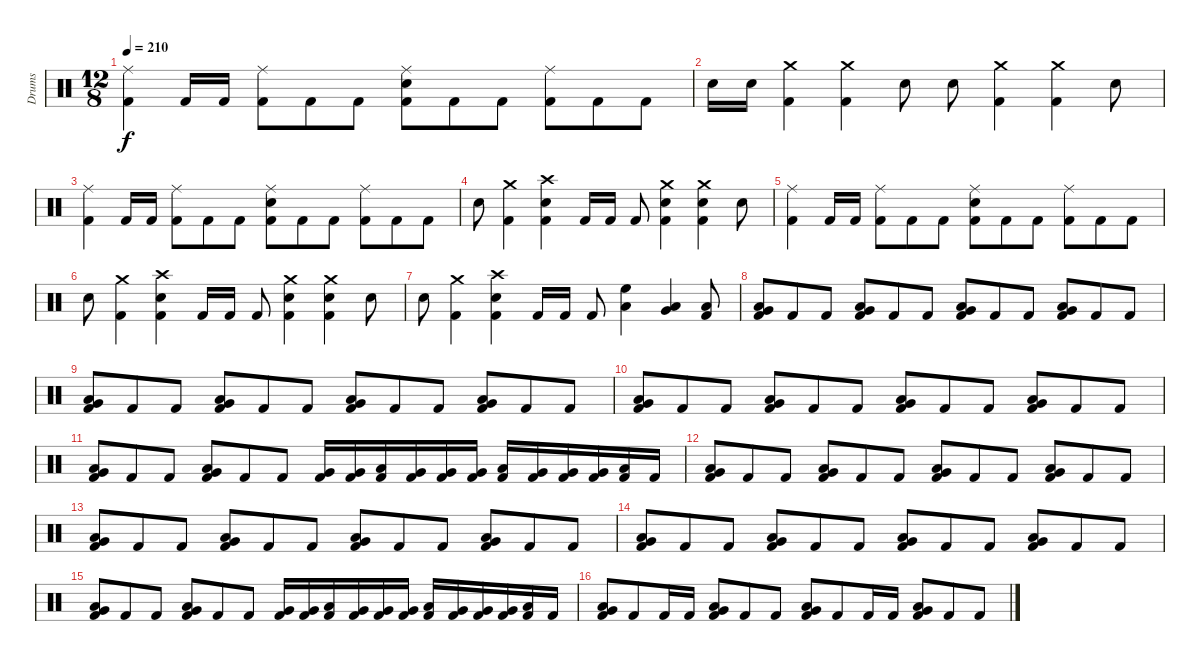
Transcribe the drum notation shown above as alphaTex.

\track ("Drums" "Drums") {instrument percussion}
\staff {score}
\articulation defaults
\ts (12 8)
\tempo 210
\clef neutral
\ks c
("Ride (middle)" "Kick (hit) 2").4{dy f} "Kick (hit) 2".16 "Kick (hit) 2".16 ("Ride (middle)" "Kick (hit) 2").8 "Kick (hit) 2".8 "Kick (hit) 2".8 ("Ride (middle)" "Snare (hit) 2" "Kick (hit) 2").8 "Kick (hit) 2".8 "Kick (hit) 2".8 ("Ride (middle)" "Kick (hit) 2").8 "Kick (hit) 2".8 "Kick (hit) 2".8 |
"Snare (hit) 2".16 "Snare (hit) 2".16 ("Crash medium (hit)" "Kick (hit) 2").4 ("Crash medium (hit)" "Kick (hit) 2").4 "Snare (hit) 2".8 "Snare (hit) 2".8 ("Crash medium (hit)" "Kick (hit) 2").4 ("Crash medium (hit)" "Kick (hit) 2").4 "Snare (hit) 2".8 |
("Ride (middle)" "Kick (hit) 2").4 "Kick (hit) 2".16 "Kick (hit) 2".16 ("Ride (middle)" "Kick (hit) 2").8 "Kick (hit) 2".8 "Kick (hit) 2".8 ("Ride (middle)" "Snare (hit) 2" "Kick (hit) 2").8 "Kick (hit) 2".8 "Kick (hit) 2".8 ("Ride (middle)" "Kick (hit) 2").8 "Kick (hit) 2".8 "Kick (hit) 2".8 |
"Snare (hit) 2".8 ("Crash medium (hit)" "Kick (hit) 2").4 ("Crash high (hit)" "Snare (hit) 2" "Kick (hit) 2").4 "Kick (hit) 2".16 "Kick (hit) 2".16 "Kick (hit) 2".8 ("Crash medium (hit)" "Snare (hit) 2" "Kick (hit) 2").4 ("Crash medium (hit)" "Snare (hit) 2" "Kick (hit) 2").4 "Snare (hit) 2".8 |
("Ride (middle)" "Kick (hit) 2").4 "Kick (hit) 2".16 "Kick (hit) 2".16 ("Ride (middle)" "Kick (hit) 2").8 "Kick (hit) 2".8 "Kick (hit) 2".8 ("Ride (middle)" "Snare (hit) 2" "Kick (hit) 2").8 "Kick (hit) 2".8 "Kick (hit) 2".8 ("Ride (middle)" "Kick (hit) 2").8 "Kick (hit) 2".8 "Kick (hit) 2".8 |
"Snare (hit) 2".8 ("Crash medium (hit)" "Kick (hit) 2").4 ("Crash high (hit)" "Snare (hit) 2" "Kick (hit) 2").4 "Kick (hit) 2".16 "Kick (hit) 2".16 "Kick (hit) 2".8 ("Crash medium (hit)" "Snare (hit) 2" "Kick (hit) 2").4 ("Crash medium (hit)" "Snare (hit) 2" "Kick (hit) 2").4 "Snare (hit) 2".8 |
"Snare (hit) 2".8 ("Crash medium (hit)" "Kick (hit) 2").4 ("Crash high (hit)" "Snare (hit) 2" "Kick (hit) 2").4 "Kick (hit) 2".16 "Kick (hit) 2".16 "Kick (hit) 2".8 ("Low Tom (hit)" "High Floor Tom (hit)").4 ("Very Low Tom (hit)" "Low Tom (hit)").4 ("Low Tom (hit)" "Kick (hit) 2").8 |
("Very Low Tom (hit)" "Low Tom (hit)" "Kick (hit) 2").8 "Kick (hit) 2".8 "Kick (hit) 2".8 ("Very Low Tom (hit)" "Low Tom (hit)" "Kick (hit) 2").8 "Kick (hit) 2".8 "Kick (hit) 2".8 ("Very Low Tom (hit)" "Low Tom (hit)" "Kick (hit) 2").8 "Kick (hit) 2".8 "Kick (hit) 2".8 ("Very Low Tom (hit)" "Low Tom (hit)" "Kick (hit) 2").8 "Kick (hit) 2".8 "Kick (hit) 2".8 |
("Very Low Tom (hit)" "Low Tom (hit)" "Kick (hit) 2").8 "Kick (hit) 2".8 "Kick (hit) 2".8 ("Very Low Tom (hit)" "Low Tom (hit)" "Kick (hit) 2").8 "Kick (hit) 2".8 "Kick (hit) 2".8 ("Very Low Tom (hit)" "Low Tom (hit)" "Kick (hit) 2").8 "Kick (hit) 2".8 "Kick (hit) 2".8 ("Very Low Tom (hit)" "Low Tom (hit)" "Kick (hit) 2").8 "Kick (hit) 2".8 "Kick (hit) 2".8 |
("Very Low Tom (hit)" "Low Tom (hit)" "Kick (hit) 2").8 "Kick (hit) 2".8 "Kick (hit) 2".8 ("Very Low Tom (hit)" "Low Tom (hit)" "Kick (hit) 2").8 "Kick (hit) 2".8 "Kick (hit) 2".8 ("Very Low Tom (hit)" "Low Tom (hit)" "Kick (hit) 2").8 "Kick (hit) 2".8 "Kick (hit) 2".8 ("Very Low Tom (hit)" "Low Tom (hit)" "Kick (hit) 2").8 "Kick (hit) 2".8 "Kick (hit) 2".8 |
("Very Low Tom (hit)" "Low Tom (hit)" "Kick (hit) 2").8 "Kick (hit) 2".8 "Kick (hit) 2".8 ("Very Low Tom (hit)" "Low Tom (hit)" "Kick (hit) 2").8 "Kick (hit) 2".8 "Kick (hit) 2".8 ("Very Low Tom (hit)" "Kick (hit) 2").16 ("Very Low Tom (hit)" "Kick (hit) 2").16 ("Low Tom (hit)" "Kick (hit) 2").16 ("Very Low Tom (hit)" "Kick (hit) 2").16 ("Very Low Tom (hit)" "Kick (hit) 2").16 ("Very Low Tom (hit)" "Kick (hit) 2").16 ("Low Tom (hit)" "Kick (hit) 2").16 ("Very Low Tom (hit)" "Kick (hit) 2").16 ("Very Low Tom (hit)" "Kick (hit) 2").16 ("Very Low Tom (hit)" "Kick (hit) 2").16 ("Low Tom (hit)" "Kick (hit) 2").16 "Kick (hit) 2".16 |
("Very Low Tom (hit)" "Low Tom (hit)" "Kick (hit) 2").8 "Kick (hit) 2".8 "Kick (hit) 2".8 ("Very Low Tom (hit)" "Low Tom (hit)" "Kick (hit) 2").8 "Kick (hit) 2".8 "Kick (hit) 2".8 ("Very Low Tom (hit)" "Low Tom (hit)" "Kick (hit) 2").8 "Kick (hit) 2".8 "Kick (hit) 2".8 ("Very Low Tom (hit)" "Low Tom (hit)" "Kick (hit) 2").8 "Kick (hit) 2".8 "Kick (hit) 2".8 |
("Very Low Tom (hit)" "Low Tom (hit)" "Kick (hit) 2").8 "Kick (hit) 2".8 "Kick (hit) 2".8 ("Very Low Tom (hit)" "Low Tom (hit)" "Kick (hit) 2").8 "Kick (hit) 2".8 "Kick (hit) 2".8 ("Very Low Tom (hit)" "Low Tom (hit)" "Kick (hit) 2").8 "Kick (hit) 2".8 "Kick (hit) 2".8 ("Very Low Tom (hit)" "Low Tom (hit)" "Kick (hit) 2").8 "Kick (hit) 2".8 "Kick (hit) 2".8 |
("Very Low Tom (hit)" "Low Tom (hit)" "Kick (hit) 2").8 "Kick (hit) 2".8 "Kick (hit) 2".8 ("Very Low Tom (hit)" "Low Tom (hit)" "Kick (hit) 2").8 "Kick (hit) 2".8 "Kick (hit) 2".8 ("Very Low Tom (hit)" "Low Tom (hit)" "Kick (hit) 2").8 "Kick (hit) 2".8 "Kick (hit) 2".8 ("Very Low Tom (hit)" "Low Tom (hit)" "Kick (hit) 2").8 "Kick (hit) 2".8 "Kick (hit) 2".8 |
("Very Low Tom (hit)" "Low Tom (hit)" "Kick (hit) 2").8 "Kick (hit) 2".8 "Kick (hit) 2".8 ("Very Low Tom (hit)" "Low Tom (hit)" "Kick (hit) 2").8 "Kick (hit) 2".8 "Kick (hit) 2".8 ("Very Low Tom (hit)" "Kick (hit) 2").16 ("Very Low Tom (hit)" "Kick (hit) 2").16 ("Low Tom (hit)" "Kick (hit) 2").16 ("Very Low Tom (hit)" "Kick (hit) 2").16 ("Very Low Tom (hit)" "Kick (hit) 2").16 ("Very Low Tom (hit)" "Kick (hit) 2").16 ("Low Tom (hit)" "Kick (hit) 2").16 ("Very Low Tom (hit)" "Kick (hit) 2").16 ("Very Low Tom (hit)" "Kick (hit) 2").16 ("Very Low Tom (hit)" "Kick (hit) 2").16 ("Low Tom (hit)" "Kick (hit) 2").16 "Kick (hit) 2".16 |
("Very Low Tom (hit)" "Low Tom (hit)" "Kick (hit) 2").8 "Kick (hit) 2".8 "Kick (hit) 2".16 "Kick (hit) 2".16 ("Very Low Tom (hit)" "Low Tom (hit)" "Kick (hit) 2").8 "Kick (hit) 2".8 "Kick (hit) 2".8 ("Very Low Tom (hit)" "Low Tom (hit)" "Kick (hit) 2").8 "Kick (hit) 2".8 "Kick (hit) 2".16 "Kick (hit) 2".16 ("Very Low Tom (hit)" "Low Tom (hit)" "Kick (hit) 2").8 "Kick (hit) 2".8 "Kick (hit) 2".8
